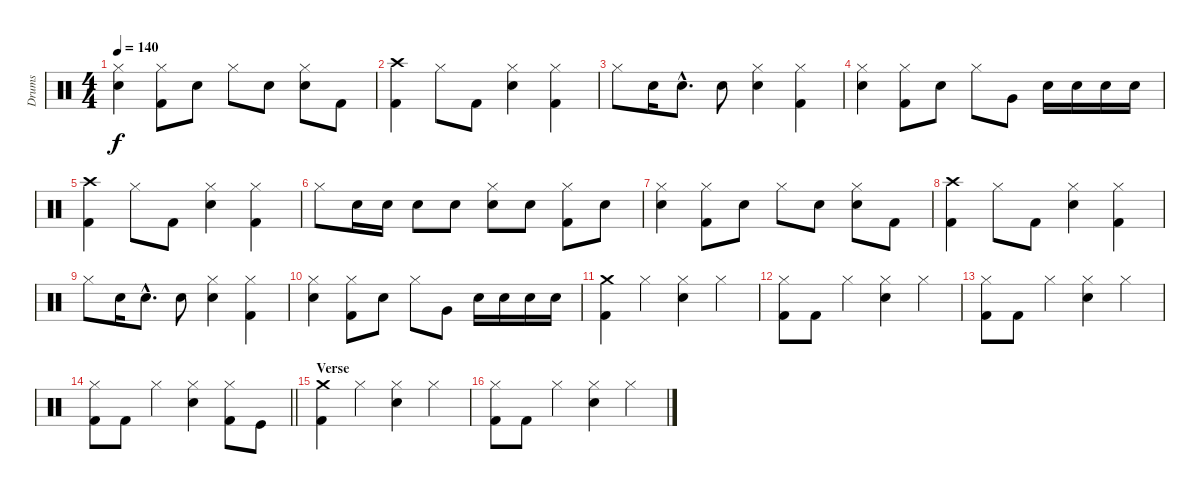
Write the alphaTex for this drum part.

\track ("Drums" "Drums") {instrument percussion}
\staff {score}
\articulation defaults
\ts (4 4)
\tempo 140
\clef neutral
\ks c
("Hi-Hat (closed)" "Snare (hit) 2").4{dy f} ("Hi-Hat (closed)" "Kick (hit) 2").8 "Snare (hit) 2".8 "Hi-Hat (closed)".8 "Electric Snare (hit)".8 ("Hi-Hat (closed)" "Snare (hit) 2").8 "Kick (hit) 2".8 |
("Crash high (hit)" "Kick (hit) 2").4 "Hi-Hat (closed)".8 "Kick (hit) 2".8 ("Hi-Hat (closed)" "Snare (hit) 2").4 ("Hi-Hat (closed)" "Kick (hit) 2").4 |
"Hi-Hat (closed)".8 "Snare (hit) 2".16 "Snare (hit) 2"{hac}.8{d} "Snare (hit) 2".8 ("Hi-Hat (closed)" "Snare (hit) 2").4 ("Hi-Hat (closed)" "Kick (hit) 2").4 |
("Hi-Hat (closed)" "Snare (hit) 2").4 ("Hi-Hat (closed)" "Kick (hit) 2").8 "Snare (hit) 2".8 "Hi-Hat (closed)".8 "Very Low Tom (hit)".8 "Snare (hit) 2".16 "Electric Snare (hit)".16 "Snare (hit) 2".16 "Electric Snare (hit)".16 |
("Crash high (hit)" "Kick (hit) 2").4 "Hi-Hat (closed)".8 "Kick (hit) 2".8 ("Hi-Hat (closed)" "Snare (hit) 2").4 ("Hi-Hat (closed)" "Kick (hit) 2").4 |
"Hi-Hat (closed)".8 "Snare (hit) 2".16 "Electric Snare (hit)".16 "Snare (hit) 2".8 "Electric Snare (hit)".8 ("Hi-Hat (closed)" "Snare (hit) 2").8 "Electric Snare (hit)".8 ("Hi-Hat (closed)" "Kick (hit) 2").8 "Electric Snare (hit)".8 |
("Hi-Hat (closed)" "Snare (hit) 2").4 ("Hi-Hat (closed)" "Kick (hit) 2").8 "Snare (hit) 2".8 "Hi-Hat (closed)".8 "Electric Snare (hit)".8 ("Hi-Hat (closed)" "Snare (hit) 2").8 "Kick (hit) 2".8 |
("Crash high (hit)" "Kick (hit) 2").4 "Hi-Hat (closed)".8 "Kick (hit) 2".8 ("Hi-Hat (closed)" "Snare (hit) 2").4 ("Hi-Hat (closed)" "Kick (hit) 2").4 |
"Hi-Hat (closed)".8 "Snare (hit) 2".16 "Snare (hit) 2"{hac}.8{d} "Snare (hit) 2".8 ("Hi-Hat (closed)" "Snare (hit) 2").4 ("Hi-Hat (closed)" "Kick (hit) 2").4 |
("Hi-Hat (closed)" "Snare (hit) 2").4 ("Hi-Hat (closed)" "Kick (hit) 2").8 "Snare (hit) 2".8 "Hi-Hat (closed)".8 "Very Low Tom (hit)".8 "Snare (hit) 2".16 "Electric Snare (hit)".16 "Snare (hit) 2".16 "Electric Snare (hit)".16 |
("Crash medium (hit)" "Kick (hit) 2").4 "Hi-Hat (closed)".4 ("Hi-Hat (closed)" "Snare (hit) 2").4 "Hi-Hat (closed)".4 |
("Hi-Hat (closed)" "Kick (hit) 2").8 "Kick (hit) 2".8 "Hi-Hat (closed)".4 ("Hi-Hat (closed)" "Snare (hit) 2").4 "Hi-Hat (closed)".4 |
("Hi-Hat (closed)" "Kick (hit) 2").8 "Kick (hit) 2".8 "Hi-Hat (closed)".4 ("Hi-Hat (closed)" "Snare (hit) 2").4 "Hi-Hat (closed)".4 |
\barLineRight lightlight
("Hi-Hat (closed)" "Kick (hit) 2").8 "Kick (hit) 2".8 "Hi-Hat (closed)".4 ("Hi-Hat (closed)" "Snare (hit) 2").4 ("Hi-Hat (closed)" "Kick (hit) 2").8 "Kick (hit)".8 |
\section ("" "Verse")
("Crash medium (hit)" "Kick (hit) 2").4 "Hi-Hat (closed)".4 ("Hi-Hat (closed)" "Snare (hit) 2").4 "Hi-Hat (closed)".4 |
("Hi-Hat (closed)" "Kick (hit) 2").8 "Kick (hit) 2".8 "Hi-Hat (closed)".4 ("Hi-Hat (closed)" "Snare (hit) 2").4 "Hi-Hat (closed)".4
